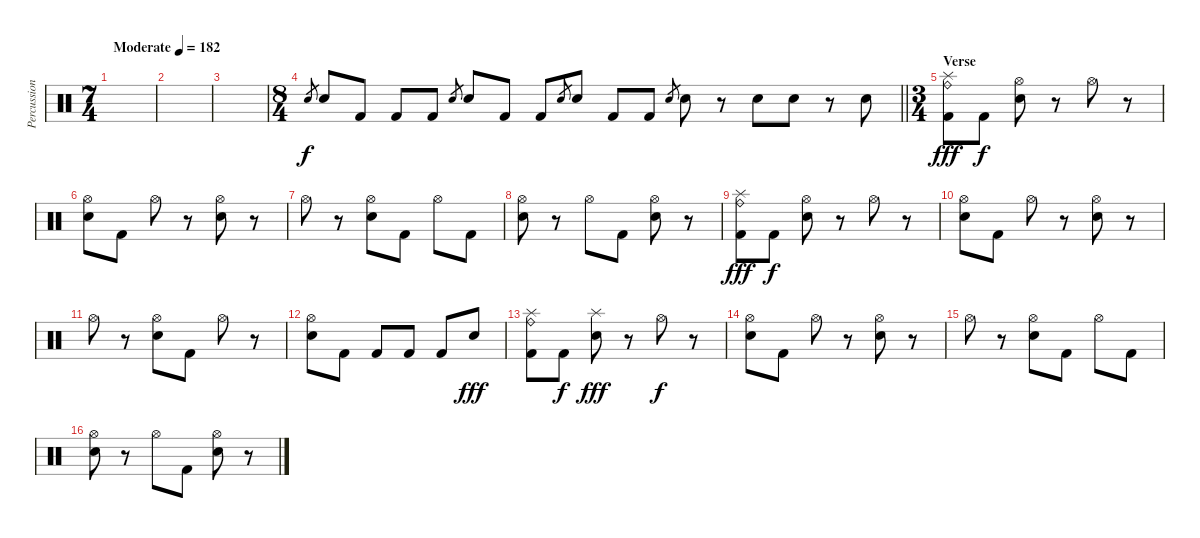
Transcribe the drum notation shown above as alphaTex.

\track ("Percussion" "Percussion") {instrument percussion}
\staff {score}
\articulation defaults
\ts (7 4)
\tempo (182 "Moderate")
\clef neutral
\ks c
|
|
|
\ts (8 4)
\barLineRight lightlight "Electric Snare (hit)".8{gr} "Electric Snare (hit)".8 "Kick (hit) 2".8 "Kick (hit) 2".8 "Kick (hit) 2".8 "Electric Snare (hit)".8{gr} "Electric Snare (hit)".8 "Kick (hit) 2".8 "Kick (hit) 2".8 "Electric Snare (hit)".8{gr} "Electric Snare (hit)".8 "Kick (hit) 2".8 "Kick (hit) 2".8 "Electric Snare (hit)".8{gr} "Electric Snare (hit)".8
r.8 "Electric Snare (hit)".8 "Electric Snare (hit)".8 r.8 "Electric Snare (hit)".8 |
\ts (3 4)
\section ("" "Verse")
("Splash (hit)" "Ride (bell)" "Kick (hit) 2").8{dy fff} "Kick (hit) 2".8{dy f} ("Hi-Hat (open)" "Electric Snare (hit)").8 r.8 "Hi-Hat (open)".8 r.8 |
("Hi-Hat (open)" "Electric Snare (hit)").8 "Kick (hit) 2".8 "Hi-Hat (open)".8 r.8 ("Hi-Hat (open)" "Electric Snare (hit)").8 r.8 |
"Hi-Hat (open)".8 r.8 ("Hi-Hat (open)" "Electric Snare (hit)").8 "Kick (hit) 2".8 "Hi-Hat (open)".8 "Kick (hit) 2".8 |
("Hi-Hat (open)" "Electric Snare (hit)").8 r.8 "Hi-Hat (open)".8 "Kick (hit) 2".8 ("Hi-Hat (open)" "Electric Snare (hit)").8 r.8 |
("Splash (hit)" "Ride (bell)" "Kick (hit) 2").8{dy fff} "Kick (hit) 2".8{dy f} ("Hi-Hat (open)" "Electric Snare (hit)").8 r.8 "Hi-Hat (open)".8 r.8 |
("Hi-Hat (open)" "Electric Snare (hit)").8 "Kick (hit) 2".8 "Hi-Hat (open)".8 r.8 ("Hi-Hat (open)" "Electric Snare (hit)").8 r.8 |
"Hi-Hat (open)".8 r.8 ("Hi-Hat (open)" "Electric Snare (hit)").8 "Kick (hit) 2".8 "Hi-Hat (open)".8 r.8 |
("Hi-Hat (open)" "Electric Snare (hit)").8 "Kick (hit) 2".8 "Kick (hit) 2".8 "Kick (hit) 2".8 "Kick (hit) 2".8 "Electric Snare (hit)".8{dy fff} |
("Splash (hit)" "Ride (bell)" "Kick (hit) 2").8 "Kick (hit) 2".8{dy f} ("Splash (hit)" "Electric Snare (hit)").8{dy fff} r.8 "Hi-Hat (open)".8{dy f} r.8 |
("Hi-Hat (open)" "Electric Snare (hit)").8 "Kick (hit) 2".8 "Hi-Hat (open)".8 r.8 ("Hi-Hat (open)" "Electric Snare (hit)").8 r.8 |
"Hi-Hat (open)".8 r.8 ("Hi-Hat (open)" "Electric Snare (hit)").8 "Kick (hit) 2".8 "Hi-Hat (open)".8 "Kick (hit) 2".8 |
("Hi-Hat (open)" "Electric Snare (hit)").8 r.8 "Hi-Hat (open)".8 "Kick (hit) 2".8 ("Hi-Hat (open)" "Electric Snare (hit)").8 r.8
